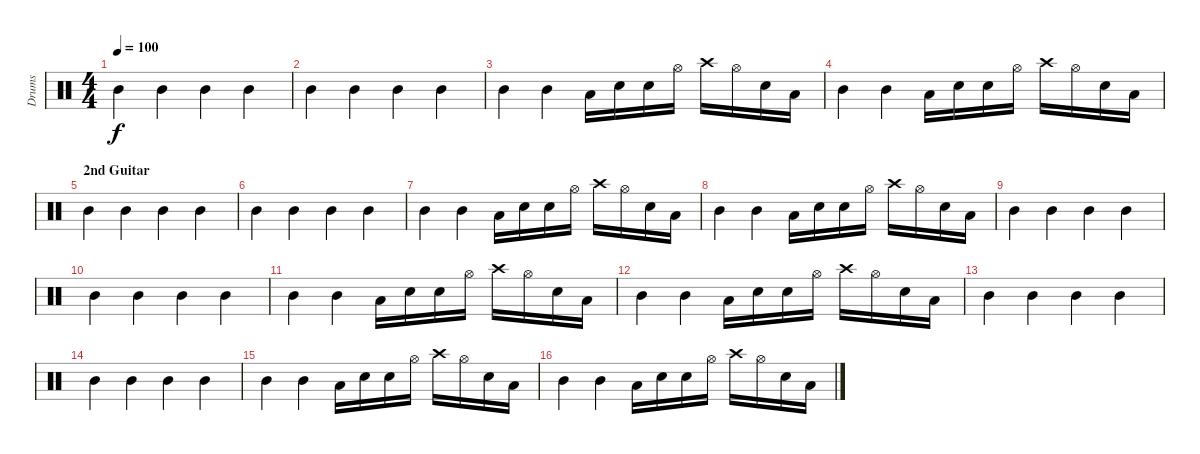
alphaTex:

\track ("Drums" "Drums") {instrument percussion}
\staff {score}
\articulation defaults
\ts (4 4)
\tempo 100
\clef neutral
\ks c "Mid Tom (hit)".4{dy f} "Mid Tom (hit)".4 "Mid Tom (hit)".4 "Mid Tom (hit)".4
|
"Mid Tom (hit)".4 "Mid Tom (hit)".4 "Mid Tom (hit)".4 "Mid Tom (hit)".4 |
"Mid Tom (hit)".4 "Mid Tom (hit)".4 "Low Tom (hit)".16 "Snare (hit) 2".16 "Snare (hit) 2".16 "Hi-Hat (open)".16 "Crash high (hit)".16 "Hi-Hat (open)".16 "Snare (hit) 2".16 "Low Tom (hit)".16 |
"Mid Tom (hit)".4 "Mid Tom (hit)".4 "Low Tom (hit)".16 "Snare (hit) 2".16 "Snare (hit) 2".16 "Hi-Hat (open)".16 "Crash high (hit)".16 "Hi-Hat (open)".16 "Snare (hit) 2".16 "Low Tom (hit)".16 |
\section ("" "2nd Guitar")
"Mid Tom (hit)".4 "Mid Tom (hit)".4 "Mid Tom (hit)".4 "Mid Tom (hit)".4 |
"Mid Tom (hit)".4 "Mid Tom (hit)".4 "Mid Tom (hit)".4 "Mid Tom (hit)".4 |
"Mid Tom (hit)".4 "Mid Tom (hit)".4 "Low Tom (hit)".16 "Snare (hit) 2".16 "Snare (hit) 2".16 "Hi-Hat (open)".16 "Crash high (hit)".16 "Hi-Hat (open)".16 "Snare (hit) 2".16 "Low Tom (hit)".16 |
"Mid Tom (hit)".4 "Mid Tom (hit)".4 "Low Tom (hit)".16 "Snare (hit) 2".16 "Snare (hit) 2".16 "Hi-Hat (open)".16 "Crash high (hit)".16 "Hi-Hat (open)".16 "Snare (hit) 2".16 "Low Tom (hit)".16 |
"Mid Tom (hit)".4 "Mid Tom (hit)".4 "Mid Tom (hit)".4 "Mid Tom (hit)".4 |
"Mid Tom (hit)".4 "Mid Tom (hit)".4 "Mid Tom (hit)".4 "Mid Tom (hit)".4 |
"Mid Tom (hit)".4 "Mid Tom (hit)".4 "Low Tom (hit)".16 "Snare (hit) 2".16 "Snare (hit) 2".16 "Hi-Hat (open)".16 "Crash high (hit)".16 "Hi-Hat (open)".16 "Snare (hit) 2".16 "Low Tom (hit)".16 |
"Mid Tom (hit)".4 "Mid Tom (hit)".4 "Low Tom (hit)".16 "Snare (hit) 2".16 "Snare (hit) 2".16 "Hi-Hat (open)".16 "Crash high (hit)".16 "Hi-Hat (open)".16 "Snare (hit) 2".16 "Low Tom (hit)".16 |
"Mid Tom (hit)".4 "Mid Tom (hit)".4 "Mid Tom (hit)".4 "Mid Tom (hit)".4 |
"Mid Tom (hit)".4 "Mid Tom (hit)".4 "Mid Tom (hit)".4 "Mid Tom (hit)".4 |
"Mid Tom (hit)".4 "Mid Tom (hit)".4 "Low Tom (hit)".16 "Snare (hit) 2".16 "Snare (hit) 2".16 "Hi-Hat (open)".16 "Crash high (hit)".16 "Hi-Hat (open)".16 "Snare (hit) 2".16 "Low Tom (hit)".16 |
"Mid Tom (hit)".4 "Mid Tom (hit)".4 "Low Tom (hit)".16 "Snare (hit) 2".16 "Snare (hit) 2".16 "Hi-Hat (open)".16 "Crash high (hit)".16 "Hi-Hat (open)".16 "Snare (hit) 2".16 "Low Tom (hit)".16
